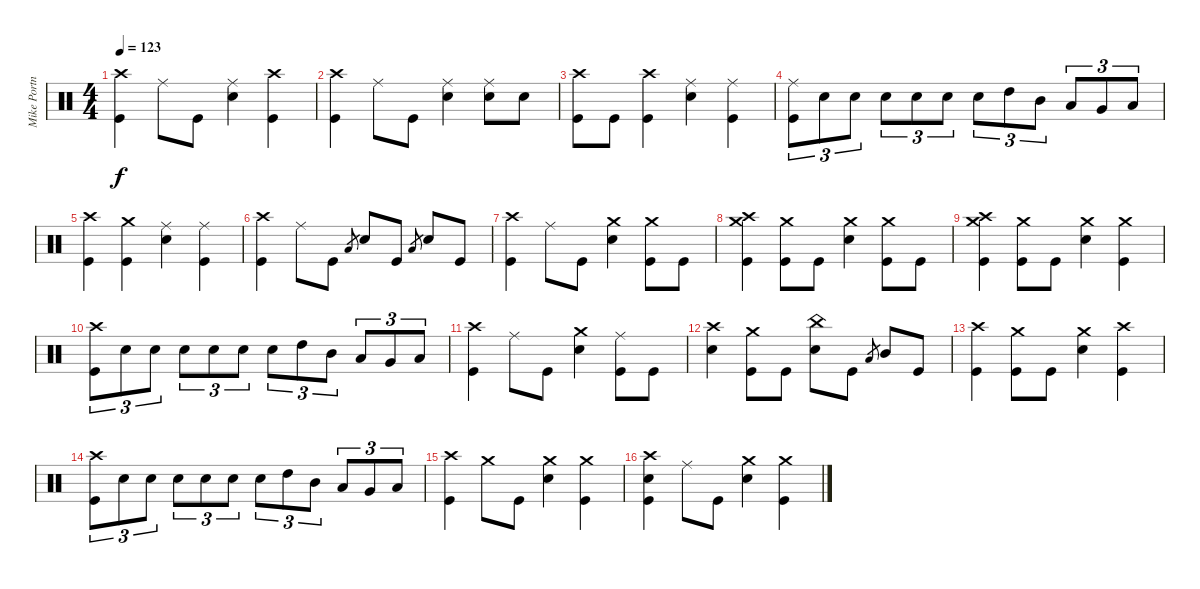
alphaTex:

\track ("Mike Portnoy" "Mike Portn") {instrument percussion}
\staff {score}
\articulation defaults
\ts (4 4)
\tempo 123
\clef neutral
\ks c
("Crash high (hit)" "Kick (hit)").4{dy f} "Ride (middle)".8 "Kick (hit)".8 ("Ride (middle)" "Electric Snare (hit)").4 ("Crash high (hit)" "Kick (hit)").4 |
("Crash high (hit)" "Kick (hit)").4 "Ride (middle)".8 "Kick (hit)".8 ("Ride (middle)" "Electric Snare (hit)").4 ("Ride (middle)" "Electric Snare (hit)").8 "Electric Snare (hit)".8 |
("Crash high (hit)" "Kick (hit)").8 "Kick (hit)".8 ("Crash high (hit)" "Kick (hit)").4 ("Ride (middle)" "Electric Snare (hit)").4 ("Ride (middle)" "Kick (hit)").4 |
("Ride (middle)" "Kick (hit)").8{tu (3 2)} "Electric Snare (hit)".8{tu (3 2)} "Electric Snare (hit)".8{tu (3 2)} "Electric Snare (hit)".8{tu (3 2)} "Electric Snare (hit)".8{tu (3 2)} "Electric Snare (hit)".8{tu (3 2)} "Electric Snare (hit)".8{tu (3 2)} "High Tom (hit)".8{tu (3 2)} "Mid Tom (hit)".8{tu (3 2)} "Low Tom (hit)".8{tu (3 2)} "Very Low Tom (hit)".8{tu (3 2)} "Low Floor Tom (hit)".8{tu (3 2)} |
("Crash high (hit)" "Kick (hit)").4 ("Crash medium (hit)" "Kick (hit)").4 ("Ride (middle)" "Electric Snare (hit)").4 ("Ride (middle)" "Kick (hit)").4 |
("Crash high (hit)" "Kick (hit)").4 "Ride (middle)".8 "Kick (hit)".8 "Low Floor Tom (hit)".8{gr} "Electric Snare (hit)".8 "Kick (hit)".8 "Low Floor Tom (hit)".8{gr} "Electric Snare (hit)".8 "Kick (hit)".8 |
("Crash high (hit)" "Kick (hit)").4 "Ride (middle)".8 "Kick (hit)".8 ("Crash medium (hit)" "Electric Snare (hit)").4 ("Crash medium (hit)" "Kick (hit)").8 "Kick (hit)".8 |
("Crash medium (hit)" "Crash high (hit)" "Kick (hit)").4 ("Crash medium (hit)" "Kick (hit)").8 "Kick (hit)".8 ("Crash medium (hit)" "Electric Snare (hit)").4 ("Crash medium (hit)" "Kick (hit)").8 "Kick (hit)".8 |
("Crash medium (hit)" "Crash high (hit)" "Kick (hit)").4 ("Crash medium (hit)" "Kick (hit)").8 "Kick (hit)".8 ("Crash medium (hit)" "Electric Snare (hit)").4 ("Crash medium (hit)" "Kick (hit)").4 |
("Crash high (hit)" "Kick (hit)").8{tu (3 2)} "Electric Snare (hit)".8{tu (3 2)} "Electric Snare (hit)".8{tu (3 2)} "Electric Snare (hit)".8{tu (3 2)} "Electric Snare (hit)".8{tu (3 2)} "Electric Snare (hit)".8{tu (3 2)} "Electric Snare (hit)".8{tu (3 2)} "High Tom (hit)".8{tu (3 2)} "Mid Tom (hit)".8{tu (3 2)} "Low Tom (hit)".8{tu (3 2)} "Very Low Tom (hit)".8{tu (3 2)} "Low Floor Tom (hit)".8{tu (3 2)} |
("Crash high (hit)" "Kick (hit)").4 "Ride (middle)".8 "Kick (hit)".8 ("Crash medium (hit)" "Electric Snare (hit)").4 ("Ride (middle)" "Kick (hit)").8 "Kick (hit)".8 |
("Crash high (hit)" "Electric Snare (hit)").4 ("Crash medium (hit)" "Kick (hit)").8 "Kick (hit)".8 ("China (hit)" "Electric Snare (hit)").8 "Kick (hit)".8 "Low Tom (hit)".8{gr} "Mid Tom (hit)".8 "Kick (hit)".8 |
("Crash high (hit)" "Kick (hit)").4 ("Crash medium (hit)" "Kick (hit)").8 "Kick (hit)".8 ("Crash medium (hit)" "Electric Snare (hit)").4 ("Crash high (hit)" "Kick (hit)").4 |
("Crash high (hit)" "Kick (hit)").8{tu (3 2)} "Electric Snare (hit)".8{tu (3 2)} "Electric Snare (hit)".8{tu (3 2)} "Electric Snare (hit)".8{tu (3 2)} "Electric Snare (hit)".8{tu (3 2)} "Electric Snare (hit)".8{tu (3 2)} "Electric Snare (hit)".8{tu (3 2)} "High Tom (hit)".8{tu (3 2)} "Mid Tom (hit)".8{tu (3 2)} "Low Tom (hit)".8{tu (3 2)} "Very Low Tom (hit)".8{tu (3 2)} "Low Floor Tom (hit)".8{tu (3 2)} |
("Crash high (hit)" "Kick (hit)").4 "Crash medium (hit)".8 "Kick (hit)".8 ("Crash medium (hit)" "Electric Snare (hit)").4 ("Crash medium (hit)" "Kick (hit)").4 |
("Crash high (hit)" "Electric Snare (hit)" "Kick (hit)").4 "Ride (middle)".8 "Kick (hit)".8 ("Crash medium (hit)" "Electric Snare (hit)").4 ("Crash medium (hit)" "Kick (hit)").4
